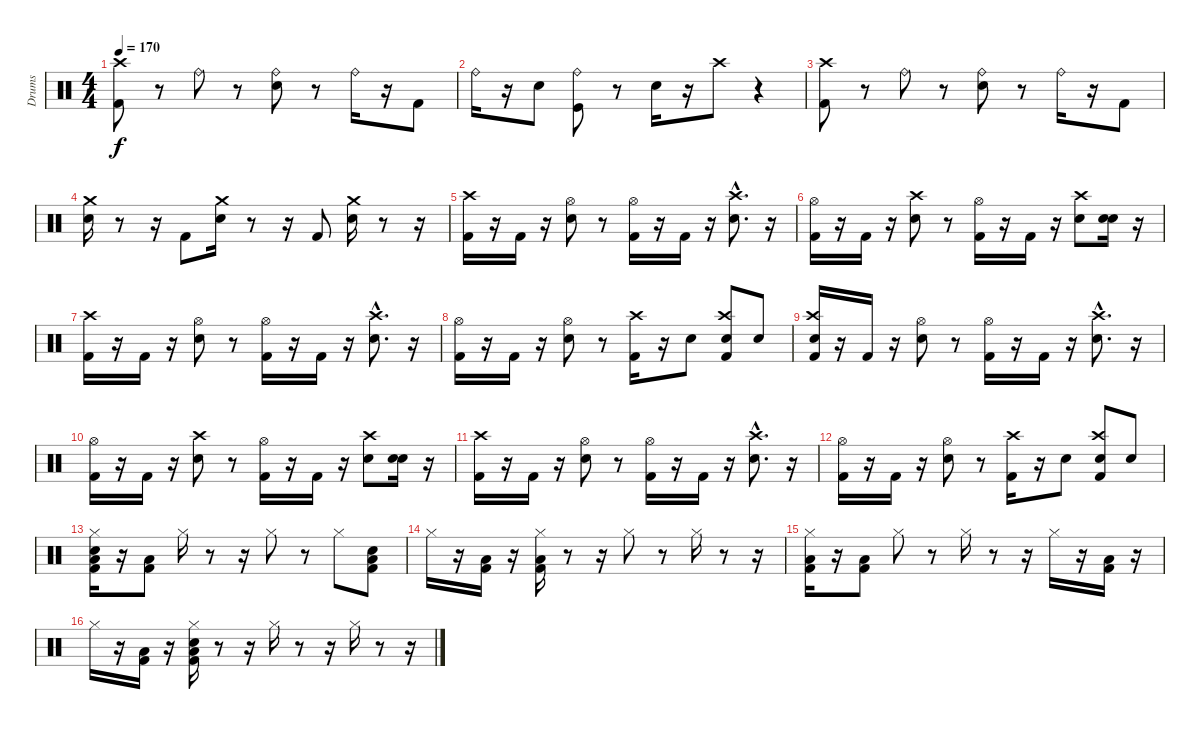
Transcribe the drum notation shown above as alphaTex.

\track ("Drums" "Drums") {instrument percussion}
\staff {score}
\articulation defaults
\ts (4 4)
\tempo 170
\clef neutral
\ks c
("Kick (hit) 2" "Crash high (hit)").8{dy f} r.8 "Ride (bell)".8 r.8 ("Electric Snare (hit)" "Ride (bell)").8 r.8 "Ride (bell)".16 r.16 "Kick (hit) 2".8 |
"Ride (bell)".16 r.16 "Electric Snare (hit)".8 ("Kick (hit)" "Ride (bell)").8 r.8 "Electric Snare (hit)".16 r.16 "Crash high (hit)".8 r.4 |
("Kick (hit) 2" "Crash high (hit)").8 r.8 "Ride (bell)".8 r.8 ("Electric Snare (hit)" "Ride (bell)").8 r.8 "Ride (bell)".16 r.16 "Kick (hit) 2".8 |
("Electric Snare (hit)" "Crash medium (hit)").16 r.8 r.16 "Kick (hit) 2".8 ("Electric Snare (hit)" "Crash medium (hit)").16 r.8 r.16 "Kick (hit) 2".8 ("Electric Snare (hit)" "Crash medium (hit)").16 r.8 r.16 |
("Kick (hit) 2" "Crash high (hit)").16 r.16 "Kick (hit) 2".16 r.16 ("Electric Snare (hit)" "Hi-Hat (open)").8 r.8 ("Kick (hit) 2" "Hi-Hat (open)").16 r.16 "Kick (hit) 2".16 r.16 ("Electric Snare (hit)"{hac} "Crash high (hit)"{hac}).8{d} r.16 |
("Kick (hit) 2" "Hi-Hat (open)").16 r.16 "Kick (hit) 2".16 r.16 ("Electric Snare (hit)" "Crash high (hit)").8 r.8 ("Kick (hit) 2" "Hi-Hat (open)").16 r.16 "Kick (hit) 2".16 r.16 ("Electric Snare (hit)" "Crash high (hit)").8 ("Snare (hit)" "Electric Snare (hit)").16 r.16 |
("Kick (hit) 2" "Crash high (hit)").16 r.16 "Kick (hit) 2".16 r.16 ("Electric Snare (hit)" "Hi-Hat (open)").8 r.8 ("Kick (hit) 2" "Hi-Hat (open)").16 r.16 "Kick (hit) 2".16 r.16 ("Electric Snare (hit)"{hac} "Crash high (hit)"{hac}).8{d} r.16 |
("Kick (hit) 2" "Hi-Hat (open)").16 r.16 "Kick (hit) 2".16 r.16 ("Electric Snare (hit)" "Hi-Hat (open)").8 r.8 ("Kick (hit) 2" "Crash high (hit)").16 r.16 "Electric Snare (hit)".8 ("Snare (hit)" "Kick (hit) 2" "Crash high (hit)").8 "Electric Snare (hit)".8 |
("Snare (hit)" "Kick (hit) 2" "Crash high (hit)").16 r.16 "Kick (hit) 2".16 r.16 ("Electric Snare (hit)" "Hi-Hat (open)").8 r.8 ("Kick (hit) 2" "Hi-Hat (open)").16 r.16 "Kick (hit) 2".16 r.16 ("Electric Snare (hit)"{hac} "Crash high (hit)"{hac}).8{d} r.16 |
("Kick (hit) 2" "Hi-Hat (open)").16 r.16 "Kick (hit) 2".16 r.16 ("Electric Snare (hit)" "Crash high (hit)").8 r.8 ("Kick (hit) 2" "Hi-Hat (open)").16 r.16 "Kick (hit) 2".16 r.16 ("Electric Snare (hit)" "Crash high (hit)").8 ("Snare (hit)" "Electric Snare (hit)").16 r.16 |
("Kick (hit) 2" "Crash high (hit)").16 r.16 "Kick (hit) 2".16 r.16 ("Electric Snare (hit)" "Hi-Hat (open)").8 r.8 ("Kick (hit) 2" "Hi-Hat (open)").16 r.16 "Kick (hit) 2".16 r.16 ("Electric Snare (hit)"{hac} "Crash high (hit)"{hac}).8{d} r.16 |
("Kick (hit) 2" "Hi-Hat (open)").16 r.16 "Kick (hit) 2".16 r.16 ("Electric Snare (hit)" "Hi-Hat (open)").8 r.8 ("Kick (hit) 2" "Crash high (hit)").16 r.16 "Electric Snare (hit)".8 ("Snare (hit)" "Kick (hit) 2" "Crash high (hit)").8 "Electric Snare (hit)".8 |
("Snare (hit)" "Kick (hit) 2" "Low Floor Tom (hit)" "Hi-Hat (closed)").16 r.16 ("Kick (hit) 2" "Low Floor Tom (hit)").8 "Hi-Hat (closed)".16 r.8 r.16 "Hi-Hat (closed)".8 r.8 "Hi-Hat (closed)".8 ("Snare (hit)" "Kick (hit) 2" "Low Floor Tom (hit)").8 |
"Hi-Hat (closed)".16 r.16 ("Kick (hit) 2" "Low Floor Tom (hit)").16 r.16 ("Kick (hit) 2" "Low Floor Tom (hit)" "Hi-Hat (closed)").16 r.8 r.16 "Hi-Hat (closed)".8 r.8 "Hi-Hat (closed)".16 r.8 r.16 |
("Kick (hit) 2" "Low Floor Tom (hit)" "Hi-Hat (closed)").16 r.16 ("Kick (hit) 2" "Low Floor Tom (hit)").8 "Hi-Hat (closed)".8 r.8 "Hi-Hat (closed)".16 r.8 r.16 "Hi-Hat (closed)".16 r.16 ("Kick (hit) 2" "Low Floor Tom (hit)").16 r.16 |
"Hi-Hat (closed)".16 r.16 ("Kick (hit) 2" "Low Floor Tom (hit)").16 r.16 ("Kick (hit) 2" "Electric Snare (hit)" "Low Floor Tom (hit)" "Hi-Hat (closed)").16 r.8 r.16 "Hi-Hat (closed)".16 r.8 r.16 "Hi-Hat (closed)".16 r.8 r.16
